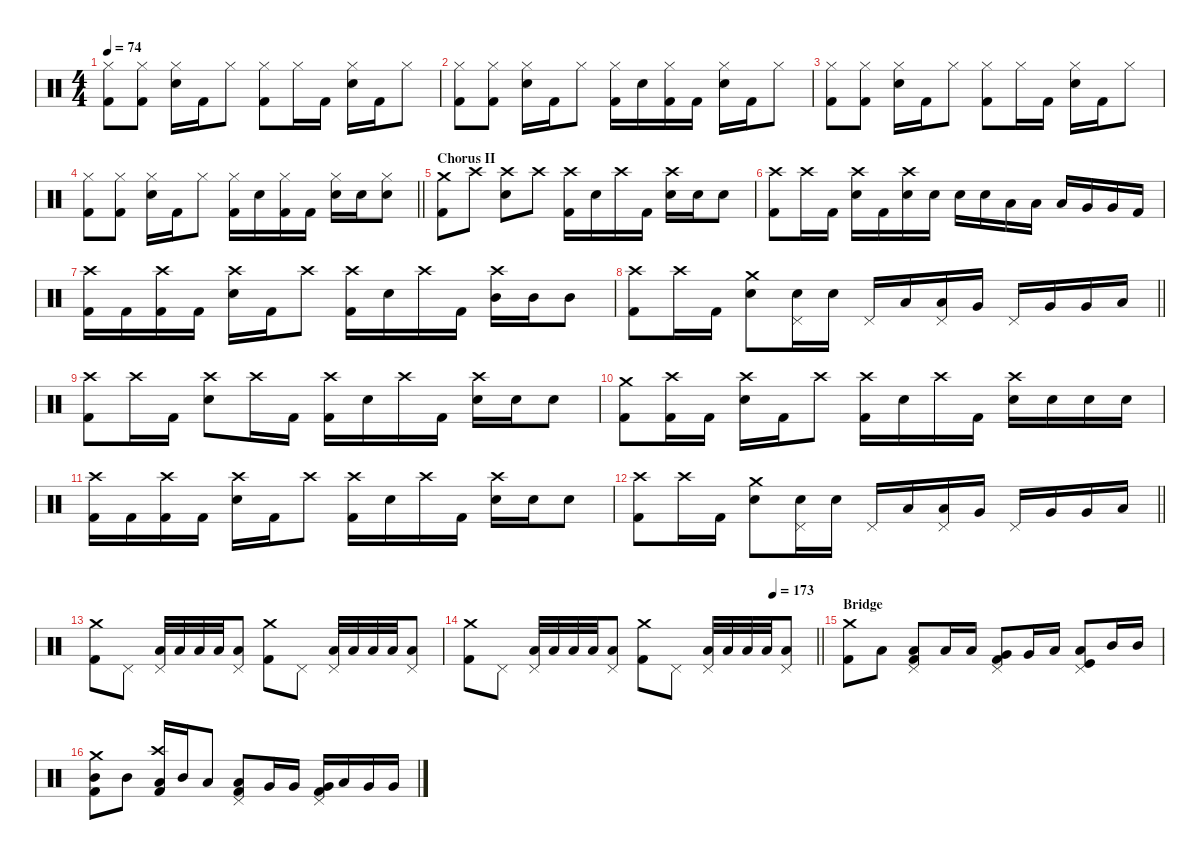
\defaultSystemsLayout 4
\hideDynamics
\bracketExtendMode nobrackets
\singleTrackTrackNamePolicy hidden
\multiTrackTrackNamePolicy hidden
\firstSystemTrackNameMode fullname
\firstSystemTrackNameOrientation horizontal
\otherSystemsTrackNameOrientation horizontal
\track ("Bill Ward" "drm.") {instrument percussion}
\staff {score}
\articulation defaults
\ts (4 4)
\tempo 74
\clef neutral
\ks c
("Kick (hit) 2" "Hi-Hat (closed)").8{dy f beam Down} ("Kick (hit) 2" "Hi-Hat (closed)").8{beam Down} ("Snare (hit) 2" "Hi-Hat (closed)").16{beam Down} "Kick (hit) 2".16{beam Down} "Hi-Hat (closed)".8{beam Down} ("Kick (hit) 2" "Hi-Hat (closed)").8{beam Down} "Hi-Hat (closed)".16{beam Down} "Kick (hit) 2".16{beam Down} ("Snare (hit) 2" "Hi-Hat (closed)").16{beam Down} "Kick (hit) 2".16{beam Down} "Hi-Hat (closed)".8{beam Down} |
("Kick (hit) 2" "Hi-Hat (closed)").8{beam Down} ("Hi-Hat (closed)" "Kick (hit) 2").8{beam Down} ("Snare (hit) 2" "Hi-Hat (closed)").16{beam Down} "Kick (hit) 2".16{beam Down} "Hi-Hat (closed)".8{beam Down} ("Kick (hit) 2" "Hi-Hat (closed)").16{beam Down} "Snare (hit) 2".16{beam Down} ("Kick (hit) 2" "Hi-Hat (closed)").16{beam Down} "Kick (hit) 2".16{beam Down} ("Snare (hit) 2" "Hi-Hat (closed)").16{beam Down} "Kick (hit) 2".16{beam Down} "Hi-Hat (closed)".8{beam Down} |
("Kick (hit) 2" "Hi-Hat (closed)").8{beam Down} ("Kick (hit) 2" "Hi-Hat (closed)").8{beam Down} ("Snare (hit) 2" "Hi-Hat (closed)").16{beam Down} "Kick (hit) 2".16{beam Down} "Hi-Hat (closed)".8{beam Down} ("Kick (hit) 2" "Hi-Hat (closed)").8{beam Down} "Hi-Hat (closed)".16{beam Down} "Kick (hit) 2".16{beam Down} ("Snare (hit) 2" "Hi-Hat (closed)").16{beam Down} "Kick (hit) 2".16{beam Down} "Hi-Hat (closed)".8{beam Down} |
\barLineRight lightlight
("Kick (hit) 2" "Hi-Hat (closed)").8{beam Down} ("Hi-Hat (closed)" "Kick (hit) 2").8{beam Down} ("Snare (hit) 2" "Hi-Hat (closed)").16{beam Down} "Kick (hit) 2".16{beam Down} "Hi-Hat (closed)".8{beam Down} ("Kick (hit) 2" "Hi-Hat (closed)").16{beam Down} "Snare (hit) 2".16{beam Down} ("Kick (hit) 2" "Hi-Hat (closed)").16{beam Down} "Kick (hit) 2".16{beam Down} ("Snare (hit) 2" "Hi-Hat (closed)").16{beam Down} "Snare (hit) 2".16{beam Down} ("Hi-Hat (closed)" "Snare (hit) 2").8{beam Down} |
\section ("" "Chorus II")
("Kick (hit) 2" "Crash medium (hit)").8{beam Down} "Crash high (hit)".8{beam Down} ("Snare (hit) 2" "Crash high (hit)").8{beam Down} "Crash high (hit)".8{beam Down} ("Kick (hit) 2" "Crash high (hit)").16{beam Down} "Snare (hit) 2".16{beam Down} "Crash high (hit)".16{beam Down} "Kick (hit) 2".16{beam Down} ("Snare (hit) 2" "Crash high (hit)").16{beam Down} "Snare (hit) 2".16{beam Down} "Snare (hit) 2".8{beam Down} |
("Kick (hit) 2" "Crash high (hit)").8{beam Down} "Crash high (hit)".16{beam Down} "Kick (hit) 2".16{beam Down} ("Snare (hit) 2" "Crash high (hit)").16{beam Down} "Kick (hit) 2".16{beam Down} ("Snare (hit) 2" "Crash high (hit)").16{beam Down} "Snare (hit) 2".16{beam Down} "Snare (hit) 2".16{beam Down} "Snare (hit) 2".16{beam Down} "Low Tom (hit)".16{beam Down} "Low Tom (hit)".16{beam Down} "Low Tom (hit)".16{beam Up} "Very Low Tom (hit)".16{beam Up} "Very Low Tom (hit)".16{beam Up} "Kick (hit) 2".16{beam Up} |
("Kick (hit) 2" "Crash high (hit)").16{beam Down} "Kick (hit) 2".16{beam Down} ("Crash high (hit)" "Kick (hit) 2").16{beam Down} "Kick (hit) 2".16{beam Down} ("Crash high (hit)" "Snare (hit) 2").16{beam Down} "Kick (hit) 2".16{beam Down} "Crash high (hit)".8{beam Down} ("Crash high (hit)" "Kick (hit) 2").16{beam Down} "Snare (hit) 2".16{beam Down} "Crash high (hit)".16{beam Down} "Kick (hit) 2".16{beam Down} ("Crash high (hit)" "Mid Tom (hit)").16{beam Down} "Mid Tom (hit)".16{beam Down} "Mid Tom (hit)".8{beam Down} |
\barLineRight lightlight
("Kick (hit) 2" "Crash high (hit)").8{beam Down} "Crash high (hit)".16{beam Down} "Kick (hit) 2".16{beam Down} ("Snare (hit) 2" "Crash medium (hit)").8{beam Down} ("Pedal Hi-Hat (hit)" "Snare (hit) 2").16{beam Down} "Snare (hit) 2".16{beam Down} "Pedal Hi-Hat (hit)".16{beam Up} "Low Tom (hit)".16{beam Up} ("Pedal Hi-Hat (hit)" "Low Tom (hit)").16{beam Up} "Very Low Tom (hit)".16{beam Up} "Pedal Hi-Hat (hit)".16{beam Up} "Very Low Tom (hit)".16{beam Up} "Very Low Tom (hit)".16{beam Up} "Low Floor Tom (hit)".16{beam Up} |
("Kick (hit) 2" "Crash high (hit)").8{beam Down} "Crash high (hit)".16{beam Down} "Kick (hit) 2".16{beam Down} ("Snare (hit) 2" "Crash high (hit)").8{beam Down} "Crash high (hit)".16{beam Down} "Kick (hit) 2".16{beam Down} ("Kick (hit) 2" "Crash high (hit)").16{beam Down} "Snare (hit) 2".16{beam Down} "Crash high (hit)".16{beam Down} "Kick (hit) 2".16{beam Down} ("Snare (hit) 2" "Crash high (hit)").16{beam Down} "Snare (hit) 2".16{beam Down} "Snare (hit) 2".8{beam Down} |
("Kick (hit) 2" "Crash medium (hit)").8{beam Down} ("Crash high (hit)" "Kick (hit) 2").16{beam Down} "Kick (hit) 2".16{beam Down} ("Snare (hit) 2" "Crash high (hit)").16{beam Down} "Kick (hit) 2".16{beam Down} "Crash high (hit)".8{beam Down} ("Kick (hit) 2" "Crash high (hit)").16{beam Down} "Snare (hit) 2".16{beam Down} "Crash high (hit)".16{beam Down} "Kick (hit) 2".16{beam Down} ("Snare (hit) 2" "Crash high (hit)").16{beam Down} "Snare (hit) 2".16{beam Down} "Snare (hit) 2".16{beam Down} "Snare (hit) 2".16{beam Down} |
("Kick (hit) 2" "Crash high (hit)").16{beam Down} "Kick (hit) 2".16{beam Down} ("Crash high (hit)" "Kick (hit) 2").16{beam Down} "Kick (hit) 2".16{beam Down} ("Crash high (hit)" "Snare (hit) 2").16{beam Down} "Kick (hit) 2".16{beam Down} "Crash high (hit)".8{beam Down} ("Crash high (hit)" "Kick (hit) 2").16{beam Down} "Snare (hit) 2".16{beam Down} "Crash high (hit)".16{beam Down} "Kick (hit) 2".16{beam Down} ("Snare (hit) 2" "Crash high (hit)").16{beam Down} "Snare (hit) 2".16{beam Down} "Snare (hit) 2".8{beam Down} |
\barLineRight lightlight
("Kick (hit) 2" "Crash high (hit)").8{beam Down} "Crash high (hit)".16{beam Down} "Kick (hit) 2".16{beam Down} ("Snare (hit) 2" "Crash medium (hit)").8{beam Down} ("Pedal Hi-Hat (hit)" "Snare (hit) 2").16{beam Down} "Snare (hit) 2".16{beam Down} "Pedal Hi-Hat (hit)".16{beam Up} "Low Tom (hit)".16{beam Up} ("Pedal Hi-Hat (hit)" "Low Tom (hit)").16{beam Up} "Very Low Tom (hit)".16{beam Up} "Pedal Hi-Hat (hit)".16{beam Up} "Very Low Tom (hit)".16{beam Up} "Very Low Tom (hit)".16{beam Up} "Low Floor Tom (hit)".16{beam Up} |
("Kick (hit) 2" "Crash medium (hit)").8{beam Down} "Pedal Hi-Hat (hit)".8{beam Down} ("Pedal Hi-Hat (hit)" "Low Tom (hit)").32{beam Up} "Low Tom (hit)".32{beam Up} "Low Tom (hit)".32{beam Up} "Low Tom (hit)".32{beam Up} ("Low Tom (hit)" "Pedal Hi-Hat (hit)").8{beam Up} ("Kick (hit) 2" "Crash medium (hit)").8{beam Down} "Pedal Hi-Hat (hit)".8{beam Down} ("Pedal Hi-Hat (hit)" "Low Tom (hit)").32{beam Up} "Low Tom (hit)".32{beam Up} "Low Tom (hit)".32{beam Up} "Low Tom (hit)".32{beam Up} ("Low Tom (hit)" "Pedal Hi-Hat (hit)").8{beam Up} |
\tempo (173 0.875)
\barLineRight lightlight
("Kick (hit) 2" "Crash medium (hit)").8{beam Down} "Pedal Hi-Hat (hit)".8{beam Down} ("Pedal Hi-Hat (hit)" "Low Tom (hit)").32{beam Up} "Low Tom (hit)".32{beam Up} "Low Tom (hit)".32{beam Up} "Low Tom (hit)".32{beam Up} ("Low Tom (hit)" "Pedal Hi-Hat (hit)").8{beam Up} ("Kick (hit) 2" "Crash medium (hit)").8{beam Down} "Pedal Hi-Hat (hit)".8{beam Down} ("Pedal Hi-Hat (hit)" "Low Tom (hit)").32{beam Up} "Low Tom (hit)".32{beam Up} "Low Tom (hit)".32{beam Up} "Low Tom (hit)".32{beam Up} ("Low Tom (hit)" "Pedal Hi-Hat (hit)").8{beam Up} |
\section ("" "Bridge")
("Kick (hit) 2" "Crash medium (hit)").8{beam Down} "Low Tom (hit)".8{beam Down} ("Low Tom (hit)" "Kick (hit) 2" "Pedal Hi-Hat (hit)").8{beam Up} "Low Tom (hit)".16{beam Up} "Low Tom (hit)".16{beam Up} ("Very Low Tom (hit)" "Kick (hit) 2" "Pedal Hi-Hat (hit)").8{beam Up} "Very Low Tom (hit)".16{beam Up} "Low Tom (hit)".16{beam Up} ("Low Tom (hit)" "Kick (hit)" "Pedal Hi-Hat (hit)").8{beam Up} "Mid Tom (hit)".16{beam Up} "Mid Tom (hit)".16{beam Up} |
("Mid Tom (hit)" "Crash medium (hit)" "Kick (hit) 2").8{beam Down} "Mid Tom (hit)".8{beam Down} ("Low Tom (hit)" "Crash high (hit)" "Kick (hit) 2").16{beam Up} "Mid Tom (hit)".16{beam Up} "Low Tom (hit)".8{beam Up} ("Low Tom (hit)" "Kick (hit) 2" "Pedal Hi-Hat (hit)").8{beam Up} "Very Low Tom (hit)".16{beam Up} "Very Low Tom (hit)".16{beam Up} ("Very Low Tom (hit)" "Kick (hit) 2" "Pedal Hi-Hat (hit)").16{beam Up} "Low Floor Tom (hit)".16{beam Up} "Very Low Tom (hit)".16{beam Up} "Very Low Tom (hit)".16{beam Up}
